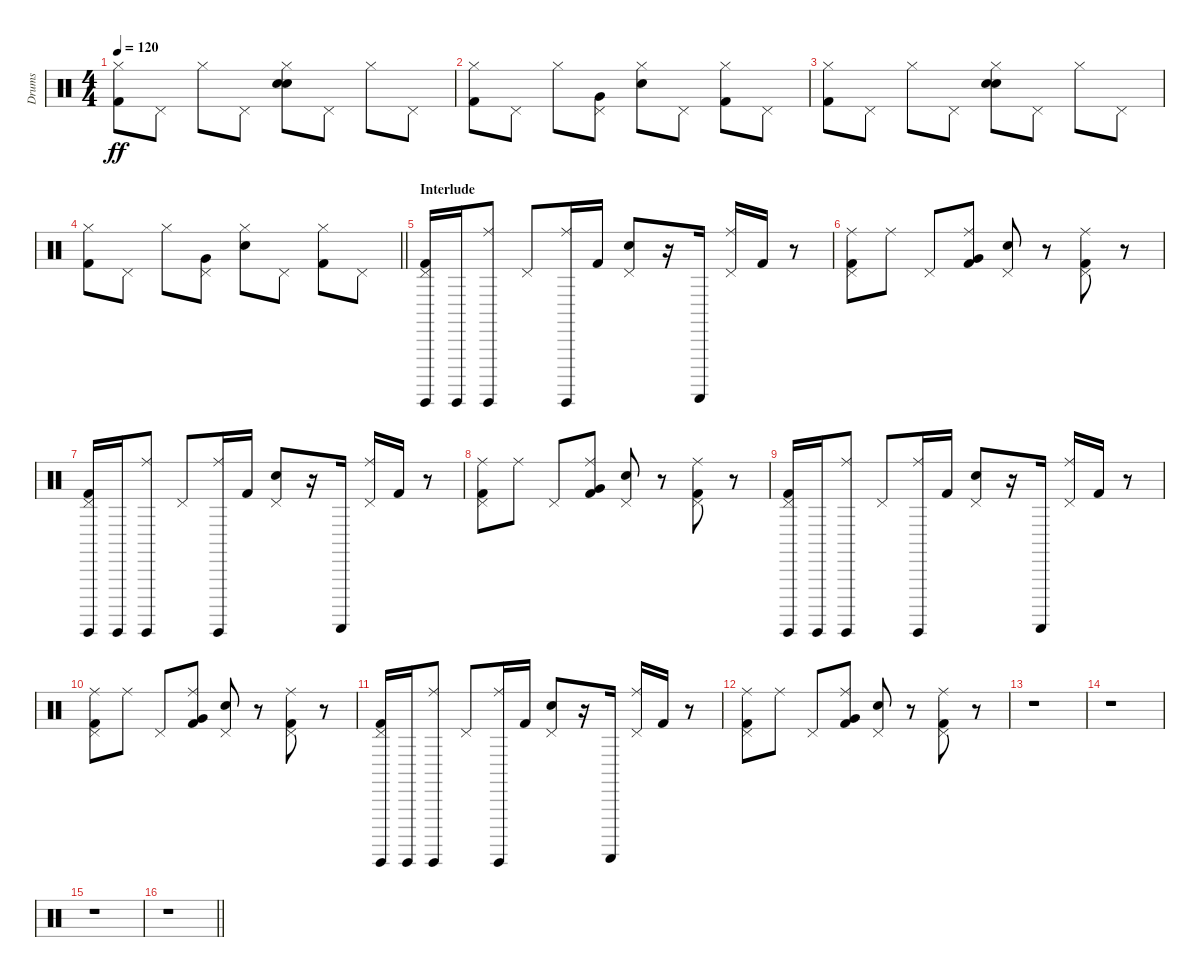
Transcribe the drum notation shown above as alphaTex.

\track ("Drums" "Drums") {instrument percussion}
\staff {score}
\articulation defaults
\ts (4 4)
\tempo 120
\clef neutral
\ks c
("Kick (hit) 2" "Hi-Hat (closed)").8{dy ff} "Pedal Hi-Hat (hit)".8 "Hi-Hat (closed)".8 "Pedal Hi-Hat (hit)".8 ("Electric Snare (hit)" "Electric Snare (hit)" "Hi-Hat (closed)").8 "Pedal Hi-Hat (hit)".8 "Hi-Hat (closed)".8 "Pedal Hi-Hat (hit)".8 |
("Kick (hit) 2" "Hi-Hat (closed)").8 "Pedal Hi-Hat (hit)".8 "Hi-Hat (closed)".8 ("Very Low Tom (hit)" "Pedal Hi-Hat (hit)").8 ("Electric Snare (hit)" "Hi-Hat (closed)").8 "Pedal Hi-Hat (hit)".8 ("Kick (hit) 2" "Hi-Hat (closed)").8 "Pedal Hi-Hat (hit)".8 |
("Kick (hit) 2" "Hi-Hat (closed)").8 "Pedal Hi-Hat (hit)".8 "Hi-Hat (closed)".8 "Pedal Hi-Hat (hit)".8 ("Electric Snare (hit)" "Electric Snare (hit)" "Hi-Hat (closed)").8 "Pedal Hi-Hat (hit)".8 "Hi-Hat (closed)".8 "Pedal Hi-Hat (hit)".8 |
\barLineRight lightlight
("Kick (hit) 2" "Hi-Hat (closed)").8 "Pedal Hi-Hat (hit)".8 "Hi-Hat (closed)".8 ("Very Low Tom (hit)" "Pedal Hi-Hat (hit)").8 ("Electric Snare (hit)" "Hi-Hat (closed)").8 "Pedal Hi-Hat (hit)".8 ("Kick (hit) 2" "Hi-Hat (closed)").8 "Pedal Hi-Hat (hit)".8 |
\section ("" "Interlude")
("Kick (hit) 2" "Pedal Hi-Hat (hit)" "Guiro (hit)").16 "Guiro (hit)".16 ("Ride (middle)" "Guiro (hit)").8 "Pedal Hi-Hat (hit)".8 ("Ride (middle)" "Guiro (hit)").16 "Kick (hit) 2".16 ("Electric Snare (hit)" "Pedal Hi-Hat (hit)").8 r.16 "Guiro (scrap-return)".16 ("Pedal Hi-Hat (hit)" "Ride (middle)").16 "Kick (hit) 2".16 r.8 |
("Kick (hit) 2" "Pedal Hi-Hat (hit)" "Ride (middle)").8 "Ride (middle)".8 "Pedal Hi-Hat (hit)".8 ("Kick (hit) 2" "Very Low Tom (hit)" "Ride (middle)").8 ("Electric Snare (hit)" "Pedal Hi-Hat (hit)").8 r.8 ("Kick (hit) 2" "Pedal Hi-Hat (hit)" "Ride (middle)").8 r.8 |
("Kick (hit) 2" "Pedal Hi-Hat (hit)" "Guiro (hit)").16 "Guiro (hit)".16 ("Ride (middle)" "Guiro (hit)").8 "Pedal Hi-Hat (hit)".8 ("Ride (middle)" "Guiro (hit)").16 "Kick (hit) 2".16 ("Electric Snare (hit)" "Pedal Hi-Hat (hit)").8 r.16 "Guiro (scrap-return)".16 ("Pedal Hi-Hat (hit)" "Ride (middle)").16 "Kick (hit) 2".16 r.8 |
("Kick (hit) 2" "Pedal Hi-Hat (hit)" "Ride (middle)").8 "Ride (middle)".8 "Pedal Hi-Hat (hit)".8 ("Kick (hit) 2" "Very Low Tom (hit)" "Ride (middle)").8 ("Electric Snare (hit)" "Pedal Hi-Hat (hit)").8 r.8 ("Kick (hit) 2" "Pedal Hi-Hat (hit)" "Ride (middle)").8 r.8 |
("Kick (hit) 2" "Pedal Hi-Hat (hit)" "Guiro (hit)").16 "Guiro (hit)".16 ("Ride (middle)" "Guiro (hit)").8 "Pedal Hi-Hat (hit)".8 ("Ride (middle)" "Guiro (hit)").16 "Kick (hit) 2".16 ("Electric Snare (hit)" "Pedal Hi-Hat (hit)").8 r.16 "Guiro (scrap-return)".16 ("Pedal Hi-Hat (hit)" "Ride (middle)").16 "Kick (hit) 2".16 r.8 |
("Kick (hit) 2" "Pedal Hi-Hat (hit)" "Ride (middle)").8 "Ride (middle)".8 "Pedal Hi-Hat (hit)".8 ("Kick (hit) 2" "Very Low Tom (hit)" "Ride (middle)").8 ("Electric Snare (hit)" "Pedal Hi-Hat (hit)").8 r.8 ("Kick (hit) 2" "Pedal Hi-Hat (hit)" "Ride (middle)").8 r.8 |
("Kick (hit) 2" "Pedal Hi-Hat (hit)" "Guiro (hit)").16 "Guiro (hit)".16 ("Ride (middle)" "Guiro (hit)").8 "Pedal Hi-Hat (hit)".8 ("Ride (middle)" "Guiro (hit)").16 "Kick (hit) 2".16 ("Electric Snare (hit)" "Pedal Hi-Hat (hit)").8 r.16 "Guiro (scrap-return)".16 ("Pedal Hi-Hat (hit)" "Ride (middle)").16 "Kick (hit) 2".16 r.8 |
("Kick (hit) 2" "Pedal Hi-Hat (hit)" "Ride (middle)").8 "Ride (middle)".8 "Pedal Hi-Hat (hit)".8 ("Kick (hit) 2" "Very Low Tom (hit)" "Ride (middle)").8 ("Electric Snare (hit)" "Pedal Hi-Hat (hit)").8 r.8 ("Kick (hit) 2" "Pedal Hi-Hat (hit)" "Ride (middle)").8 r.8 |
r.1 |
r.1 |
r.1 |
\barLineRight lightlight
r.1
